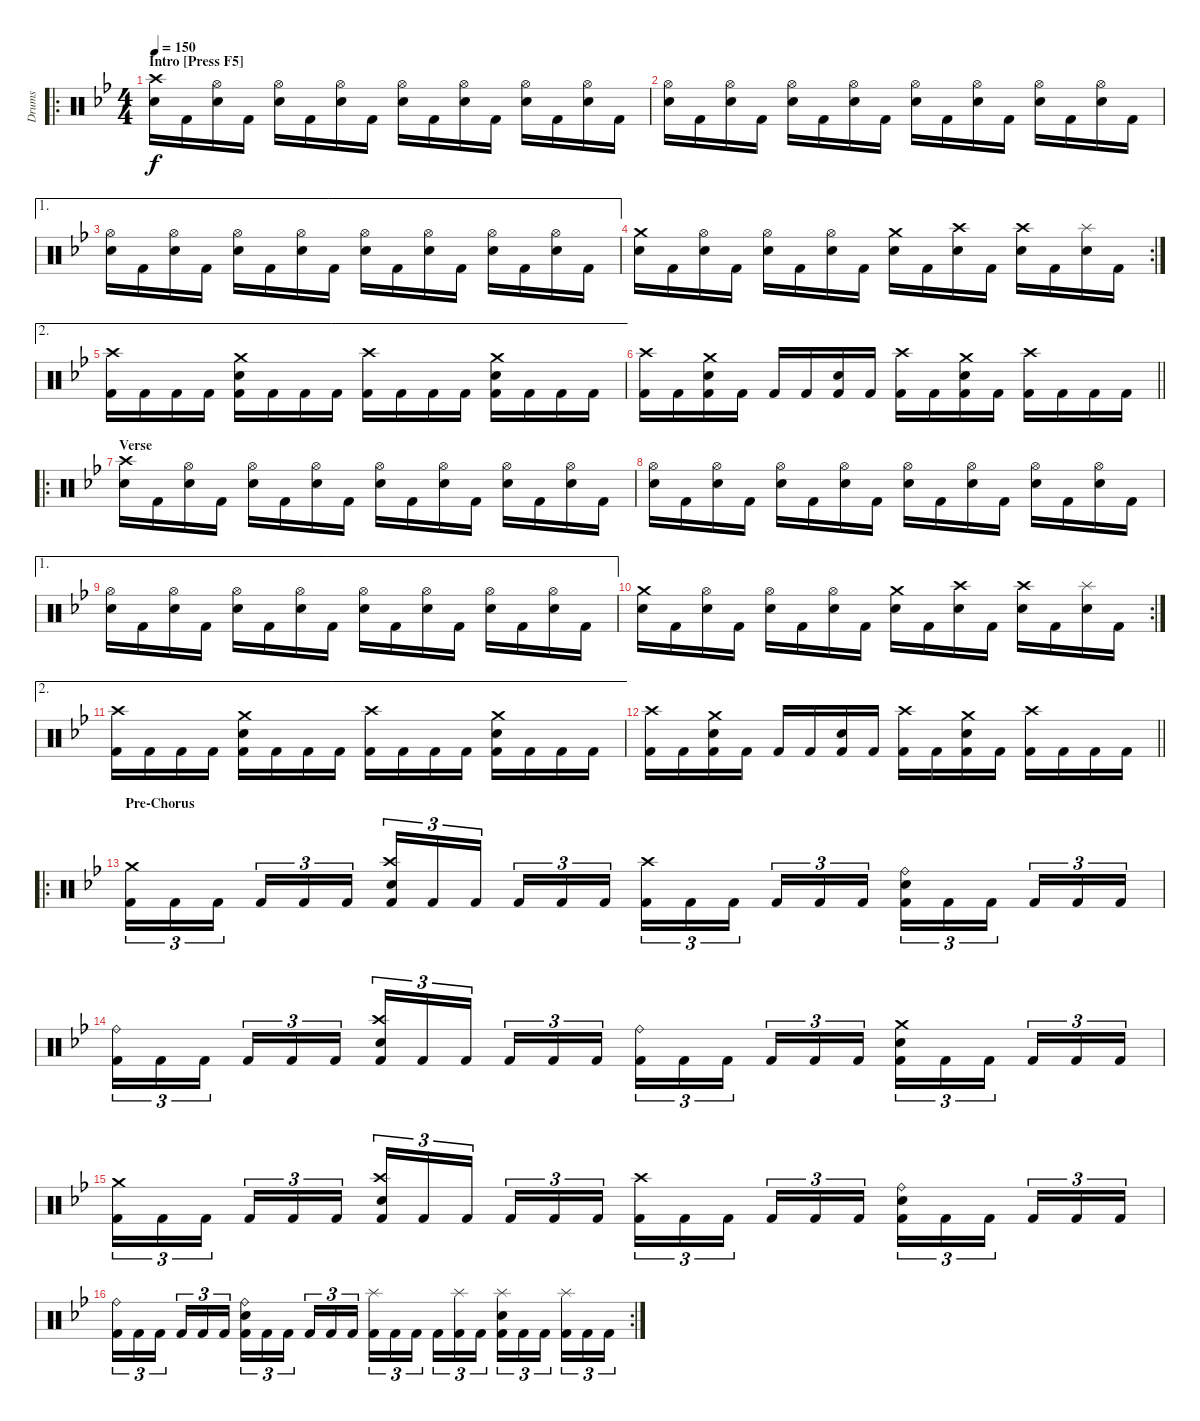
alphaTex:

\track ("Drums" "Drums") {instrument percussion}
\staff {score}
\articulation defaults
\ro
\ts (4 4)
\section ("" "Intro [Press F5]")
\tempo 150
\clef neutral
\ks gminor
("Snare (hit) 2" "Crash high (hit)").16{dy f} "Kick (hit) 2".16 ("Snare (hit) 2" "Hi-Hat (open)").16 "Kick (hit) 2".16 ("Snare (hit) 2" "Hi-Hat (open)").16 "Kick (hit) 2".16 ("Snare (hit) 2" "Hi-Hat (open)").16 "Kick (hit) 2".16 ("Snare (hit) 2" "Hi-Hat (open)").16 "Kick (hit) 2".16 ("Snare (hit) 2" "Hi-Hat (open)").16 "Kick (hit) 2".16 ("Snare (hit) 2" "Hi-Hat (open)").16 "Kick (hit) 2".16 ("Snare (hit) 2" "Hi-Hat (open)").16 "Kick (hit) 2".16 |
("Snare (hit) 2" "Hi-Hat (open)").16 "Kick (hit) 2".16 ("Snare (hit) 2" "Hi-Hat (open)").16 "Kick (hit) 2".16 ("Snare (hit) 2" "Hi-Hat (open)").16 "Kick (hit) 2".16 ("Snare (hit) 2" "Hi-Hat (open)").16 "Kick (hit) 2".16 ("Snare (hit) 2" "Hi-Hat (open)").16 "Kick (hit) 2".16 ("Snare (hit) 2" "Hi-Hat (open)").16 "Kick (hit) 2".16 ("Snare (hit) 2" "Hi-Hat (open)").16 "Kick (hit) 2".16 ("Snare (hit) 2" "Hi-Hat (open)").16 "Kick (hit) 2".16 |
\ae 1
("Snare (hit) 2" "Hi-Hat (open)").16 "Kick (hit) 2".16 ("Snare (hit) 2" "Hi-Hat (open)").16 "Kick (hit) 2".16 ("Snare (hit) 2" "Hi-Hat (open)").16 "Kick (hit) 2".16 ("Snare (hit) 2" "Hi-Hat (open)").16 "Kick (hit) 2".16 ("Snare (hit) 2" "Hi-Hat (open)").16 "Kick (hit) 2".16 ("Snare (hit) 2" "Hi-Hat (open)").16 "Kick (hit) 2".16 ("Snare (hit) 2" "Hi-Hat (open)").16 "Kick (hit) 2".16 ("Snare (hit) 2" "Hi-Hat (open)").16 "Kick (hit) 2".16 |
\rc 2
("Snare (hit) 2" "Crash medium (hit)").16 "Kick (hit) 2".16 ("Snare (hit) 2" "Hi-Hat (open)").16 "Kick (hit) 2".16 ("Snare (hit) 2" "Hi-Hat (open)").16 "Kick (hit) 2".16 ("Snare (hit) 2" "Hi-Hat (open)").16 "Kick (hit) 2".16 ("Snare (hit) 2" "Crash medium (hit)").16 "Kick (hit) 2".16 ("Snare (hit) 2" "Crash high (hit)").16 "Kick (hit) 2".16 ("Snare (hit) 2" "Crash high (hit)").16 "Kick (hit) 2".16 ("Snare (hit) 2" "Splash (hit)").16 "Kick (hit) 2".16 |
\ae 2
("Kick (hit) 2" "Crash high (hit)").16 "Kick (hit) 2".16 "Kick (hit) 2".16 "Kick (hit) 2".16 ("Kick (hit) 2" "Snare (hit) 2" "Crash medium (hit)").16 "Kick (hit) 2".16 "Kick (hit) 2".16 "Kick (hit) 2".16 ("Kick (hit) 2" "Crash high (hit)").16 "Kick (hit) 2".16 "Kick (hit) 2".16 "Kick (hit) 2".16 ("Kick (hit) 2" "Snare (hit) 2" "Crash medium (hit)").16 "Kick (hit) 2".16 "Kick (hit) 2".16 "Kick (hit) 2".16 |
\barLineRight lightlight
("Kick (hit) 2" "Crash high (hit)").16 "Kick (hit) 2".16 ("Kick (hit) 2" "Snare (hit) 2" "Crash medium (hit)").16 "Kick (hit) 2".16 "Kick (hit) 2".16 "Kick (hit) 2".16 ("Kick (hit) 2" "Snare (hit) 2").16 "Kick (hit) 2".16 ("Kick (hit) 2" "Crash high (hit)").16 "Kick (hit) 2".16 ("Kick (hit) 2" "Snare (hit) 2" "Crash medium (hit)").16 "Kick (hit) 2".16 ("Kick (hit) 2" "Crash high (hit)").16 "Kick (hit) 2".16 "Kick (hit) 2".16 "Kick (hit) 2".16 |
\ro
\section ("" "Verse")
("Snare (hit) 2" "Crash high (hit)").16 "Kick (hit) 2".16 ("Snare (hit) 2" "Hi-Hat (open)").16 "Kick (hit) 2".16 ("Snare (hit) 2" "Hi-Hat (open)").16 "Kick (hit) 2".16 ("Snare (hit) 2" "Hi-Hat (open)").16 "Kick (hit) 2".16 ("Snare (hit) 2" "Hi-Hat (open)").16 "Kick (hit) 2".16 ("Snare (hit) 2" "Hi-Hat (open)").16 "Kick (hit) 2".16 ("Snare (hit) 2" "Hi-Hat (open)").16 "Kick (hit) 2".16 ("Snare (hit) 2" "Hi-Hat (open)").16 "Kick (hit) 2".16 |
("Snare (hit) 2" "Hi-Hat (open)").16 "Kick (hit) 2".16 ("Snare (hit) 2" "Hi-Hat (open)").16 "Kick (hit) 2".16 ("Snare (hit) 2" "Hi-Hat (open)").16 "Kick (hit) 2".16 ("Snare (hit) 2" "Hi-Hat (open)").16 "Kick (hit) 2".16 ("Snare (hit) 2" "Hi-Hat (open)").16 "Kick (hit) 2".16 ("Snare (hit) 2" "Hi-Hat (open)").16 "Kick (hit) 2".16 ("Snare (hit) 2" "Hi-Hat (open)").16 "Kick (hit) 2".16 ("Snare (hit) 2" "Hi-Hat (open)").16 "Kick (hit) 2".16 |
\ae 1
("Snare (hit) 2" "Hi-Hat (open)").16 "Kick (hit) 2".16 ("Snare (hit) 2" "Hi-Hat (open)").16 "Kick (hit) 2".16 ("Snare (hit) 2" "Hi-Hat (open)").16 "Kick (hit) 2".16 ("Snare (hit) 2" "Hi-Hat (open)").16 "Kick (hit) 2".16 ("Snare (hit) 2" "Hi-Hat (open)").16 "Kick (hit) 2".16 ("Snare (hit) 2" "Hi-Hat (open)").16 "Kick (hit) 2".16 ("Snare (hit) 2" "Hi-Hat (open)").16 "Kick (hit) 2".16 ("Snare (hit) 2" "Hi-Hat (open)").16 "Kick (hit) 2".16 |
\rc 2
("Snare (hit) 2" "Crash medium (hit)").16 "Kick (hit) 2".16 ("Snare (hit) 2" "Hi-Hat (open)").16 "Kick (hit) 2".16 ("Snare (hit) 2" "Hi-Hat (open)").16 "Kick (hit) 2".16 ("Snare (hit) 2" "Hi-Hat (open)").16 "Kick (hit) 2".16 ("Snare (hit) 2" "Crash medium (hit)").16 "Kick (hit) 2".16 ("Snare (hit) 2" "Crash high (hit)").16 "Kick (hit) 2".16 ("Snare (hit) 2" "Crash high (hit)").16 "Kick (hit) 2".16 ("Snare (hit) 2" "Splash (hit)").16 "Kick (hit) 2".16 |
\ae 2
("Kick (hit) 2" "Crash high (hit)").16 "Kick (hit) 2".16 "Kick (hit) 2".16 "Kick (hit) 2".16 ("Kick (hit) 2" "Snare (hit) 2" "Crash medium (hit)").16 "Kick (hit) 2".16 "Kick (hit) 2".16 "Kick (hit) 2".16 ("Kick (hit) 2" "Crash high (hit)").16 "Kick (hit) 2".16 "Kick (hit) 2".16 "Kick (hit) 2".16 ("Kick (hit) 2" "Snare (hit) 2" "Crash medium (hit)").16 "Kick (hit) 2".16 "Kick (hit) 2".16 "Kick (hit) 2".16 |
\barLineRight lightlight
("Kick (hit) 2" "Crash high (hit)").16 "Kick (hit) 2".16 ("Kick (hit) 2" "Snare (hit) 2" "Crash medium (hit)").16 "Kick (hit) 2".16 "Kick (hit) 2".16 "Kick (hit) 2".16 ("Kick (hit) 2" "Snare (hit) 2").16 "Kick (hit) 2".16 ("Kick (hit) 2" "Crash high (hit)").16 "Kick (hit) 2".16 ("Kick (hit) 2" "Snare (hit) 2" "Crash medium (hit)").16 "Kick (hit) 2".16 ("Kick (hit) 2" "Crash high (hit)").16 "Kick (hit) 2".16 "Kick (hit) 2".16 "Kick (hit) 2".16 |
\ro
\section ("" "Pre-Chorus")
("Kick (hit) 2" "Crash medium (hit)").16{tu (3 2)} "Kick (hit) 2".16{tu (3 2)} "Kick (hit) 2".16{tu (3 2) beam splitsecondary} "Kick (hit) 2".16{tu (3 2)} "Kick (hit) 2".16{tu (3 2)} "Kick (hit) 2".16{tu (3 2)} ("Kick (hit) 2" "Snare (hit) 2" "Crash high (hit)").16{tu (3 2)} "Kick (hit) 2".16{tu (3 2)} "Kick (hit) 2".16{tu (3 2) beam splitsecondary} "Kick (hit) 2".16{tu (3 2)} "Kick (hit) 2".16{tu (3 2)} "Kick (hit) 2".16{tu (3 2)} ("Kick (hit) 2" "Crash high (hit)").16{tu (3 2)} "Kick (hit) 2".16{tu (3 2)} "Kick (hit) 2".16{tu (3 2) beam splitsecondary} "Kick (hit) 2".16{tu (3 2)} "Kick (hit) 2".16{tu (3 2)} "Kick (hit) 2".16{tu (3 2)} ("Kick (hit) 2" "Snare (hit) 2" "Ride (bell)").16{tu (3 2)} "Kick (hit) 2".16{tu (3 2)} "Kick (hit) 2".16{tu (3 2) beam splitsecondary} "Kick (hit) 2".16{tu (3 2)} "Kick (hit) 2".16{tu (3 2)} "Kick (hit) 2".16{tu (3 2)} |
("Kick (hit) 2" "Ride (bell)").16{tu (3 2)} "Kick (hit) 2".16{tu (3 2)} "Kick (hit) 2".16{tu (3 2) beam splitsecondary} "Kick (hit) 2".16{tu (3 2)} "Kick (hit) 2".16{tu (3 2)} "Kick (hit) 2".16{tu (3 2)} ("Kick (hit) 2" "Snare (hit) 2" "Crash high (hit)").16{tu (3 2)} "Kick (hit) 2".16{tu (3 2)} "Kick (hit) 2".16{tu (3 2) beam splitsecondary} "Kick (hit) 2".16{tu (3 2)} "Kick (hit) 2".16{tu (3 2)} "Kick (hit) 2".16{tu (3 2)} ("Kick (hit) 2" "Ride (bell)").16{tu (3 2)} "Kick (hit) 2".16{tu (3 2)} "Kick (hit) 2".16{tu (3 2) beam splitsecondary} "Kick (hit) 2".16{tu (3 2)} "Kick (hit) 2".16{tu (3 2)} "Kick (hit) 2".16{tu (3 2)} ("Kick (hit) 2" "Snare (hit) 2" "Crash medium (hit)").16{tu (3 2)} "Kick (hit) 2".16{tu (3 2)} "Kick (hit) 2".16{tu (3 2) beam splitsecondary} "Kick (hit) 2".16{tu (3 2)} "Kick (hit) 2".16{tu (3 2)} "Kick (hit) 2".16{tu (3 2)} |
("Kick (hit) 2" "Crash medium (hit)").16{tu (3 2)} "Kick (hit) 2".16{tu (3 2)} "Kick (hit) 2".16{tu (3 2) beam splitsecondary} "Kick (hit) 2".16{tu (3 2)} "Kick (hit) 2".16{tu (3 2)} "Kick (hit) 2".16{tu (3 2)} ("Kick (hit) 2" "Snare (hit) 2" "Crash high (hit)").16{tu (3 2)} "Kick (hit) 2".16{tu (3 2)} "Kick (hit) 2".16{tu (3 2) beam splitsecondary} "Kick (hit) 2".16{tu (3 2)} "Kick (hit) 2".16{tu (3 2)} "Kick (hit) 2".16{tu (3 2)} ("Kick (hit) 2" "Crash high (hit)").16{tu (3 2)} "Kick (hit) 2".16{tu (3 2)} "Kick (hit) 2".16{tu (3 2) beam splitsecondary} "Kick (hit) 2".16{tu (3 2)} "Kick (hit) 2".16{tu (3 2)} "Kick (hit) 2".16{tu (3 2)} ("Kick (hit) 2" "Snare (hit) 2" "Ride (bell)").16{tu (3 2)} "Kick (hit) 2".16{tu (3 2)} "Kick (hit) 2".16{tu (3 2) beam splitsecondary} "Kick (hit) 2".16{tu (3 2)} "Kick (hit) 2".16{tu (3 2)} "Kick (hit) 2".16{tu (3 2)} |
\rc 2
("Kick (hit) 2" "Ride (bell)").16{tu (3 2)} "Kick (hit) 2".16{tu (3 2)} "Kick (hit) 2".16{tu (3 2) beam splitsecondary} "Kick (hit) 2".16{tu (3 2)} "Kick (hit) 2".16{tu (3 2)} "Kick (hit) 2".16{tu (3 2)} ("Kick (hit) 2" "Snare (hit) 2" "Ride (bell)").16{tu (3 2)} "Kick (hit) 2".16{tu (3 2)} "Kick (hit) 2".16{tu (3 2) beam splitsecondary} "Kick (hit) 2".16{tu (3 2)} "Kick (hit) 2".16{tu (3 2)} "Kick (hit) 2".16{tu (3 2)} ("Kick (hit) 2" "Splash (hit)").16{tu (3 2)} "Kick (hit) 2".16{tu (3 2)} "Kick (hit) 2".16{tu (3 2) beam splitsecondary} "Kick (hit) 2".16{tu (3 2)} ("Kick (hit) 2" "Splash (hit)").16{tu (3 2)} "Kick (hit) 2".16{tu (3 2)} ("Kick (hit) 2" "Snare (hit) 2" "Splash (hit)").16{tu (3 2)} "Kick (hit) 2".16{tu (3 2)} "Kick (hit) 2".16{tu (3 2) beam splitsecondary} ("Kick (hit) 2" "Splash (hit)").16{tu (3 2)} "Kick (hit) 2".16{tu (3 2)} "Kick (hit) 2".16{tu (3 2)}
